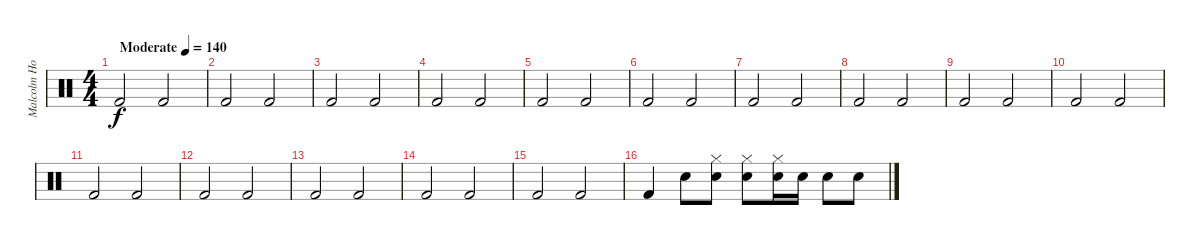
\track ("Malcolm Holmes - Drums" "Malcolm Ho") {instrument percussion}
\staff {score}
\articulation defaults
\ts (4 4)
\tempo (140 "Moderate")
\clef neutral
\ks c "Kick (hit) 2".2{dy f} "Kick (hit) 2".2
|
"Kick (hit) 2".2 "Kick (hit) 2".2 |
"Kick (hit) 2".2 "Kick (hit) 2".2 |
"Kick (hit) 2".2 "Kick (hit) 2".2 |
"Kick (hit) 2".2 "Kick (hit) 2".2 |
"Kick (hit) 2".2 "Kick (hit) 2".2 |
"Kick (hit) 2".2 "Kick (hit) 2".2 |
"Kick (hit) 2".2 "Kick (hit) 2".2 |
"Kick (hit) 2".2 "Kick (hit) 2".2 |
"Kick (hit) 2".2 "Kick (hit) 2".2 |
"Kick (hit) 2".2 "Kick (hit) 2".2 |
"Kick (hit) 2".2 "Kick (hit) 2".2 |
"Kick (hit) 2".2 "Kick (hit) 2".2 |
"Kick (hit) 2".2 "Kick (hit) 2".2 |
"Kick (hit) 2".2 "Kick (hit) 2".2 |
"Kick (hit) 2".4 "Snare (hit) 2".8 ("Snare (hit) 2" "Hi-Hat (closed)").8 ("Snare (hit) 2" "Hi-Hat (closed)").8 ("Snare (hit) 2" "Hi-Hat (closed)").16 "Snare (hit) 2".16 "Snare (hit) 2".8 "Snare (hit) 2".8
